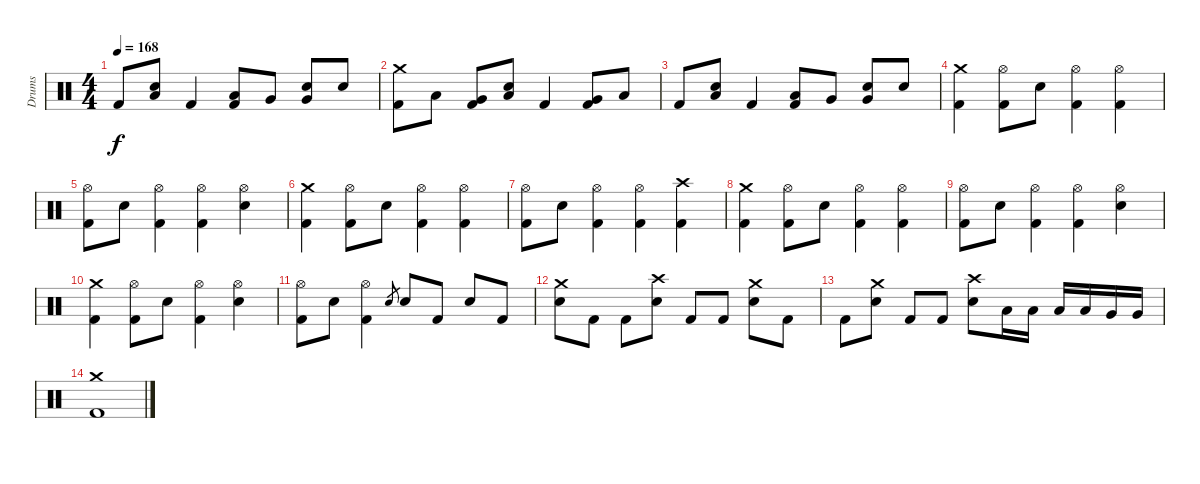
\track ("Drums" "Drums") {instrument percussion}
\staff {score}
\articulation defaults
\ts (4 4)
\tempo 168
\clef neutral
\ks c "Kick (hit) 2".8{dy f}
("Low Floor Tom (hit)" "Electric Snare (hit)").8 "Kick (hit) 2".4 ("Low Tom (hit)" "Kick (hit) 2").8 "Very Low Tom (hit)".8 ("Very Low Tom (hit)" "Electric Snare (hit)").8 "Electric Snare (hit)".8 |
("Crash medium (hit)" "Kick (hit) 2").8 "Low Tom (hit)".8 ("Very Low Tom (hit)" "Kick (hit) 2").8 ("Low Floor Tom (hit)" "Electric Snare (hit)").8 "Kick (hit) 2".4 ("Very Low Tom (hit)" "Kick (hit) 2").8 "Low Floor Tom (hit)".8 |
"Kick (hit) 2".8 ("Low Floor Tom (hit)" "Electric Snare (hit)").8 "Kick (hit) 2".4 ("Low Tom (hit)" "Kick (hit) 2").8 "Very Low Tom (hit)".8 ("Very Low Tom (hit)" "Electric Snare (hit)").8 "Electric Snare (hit)".8 |
("Crash medium (hit)" "Kick (hit) 2").4 ("Hi-Hat (open)" "Kick (hit) 2").8 "Electric Snare (hit)".8 ("Hi-Hat (open)" "Kick (hit) 2").4 ("Hi-Hat (open)" "Kick (hit) 2").4 |
("Hi-Hat (open)" "Kick (hit) 2").8 "Electric Snare (hit)".8 ("Hi-Hat (open)" "Kick (hit) 2").4 ("Hi-Hat (open)" "Kick (hit) 2").4 ("Hi-Hat (open)" "Electric Snare (hit)").4 |
("Crash medium (hit)" "Kick (hit) 2").4 ("Hi-Hat (open)" "Kick (hit) 2").8 "Electric Snare (hit)".8 ("Hi-Hat (open)" "Kick (hit) 2").4 ("Hi-Hat (open)" "Kick (hit) 2").4 |
("Hi-Hat (open)" "Kick (hit) 2").8 "Electric Snare (hit)".8 ("Hi-Hat (open)" "Kick (hit) 2").4 ("Hi-Hat (open)" "Kick (hit) 2").4 ("Crash high (hit)" "Kick (hit) 2").4 |
("Crash medium (hit)" "Kick (hit) 2").4 ("Hi-Hat (open)" "Kick (hit) 2").8 "Electric Snare (hit)".8 ("Hi-Hat (open)" "Kick (hit) 2").4 ("Hi-Hat (open)" "Kick (hit) 2").4 |
("Hi-Hat (open)" "Kick (hit) 2").8 "Electric Snare (hit)".8 ("Hi-Hat (open)" "Kick (hit) 2").4 ("Hi-Hat (open)" "Kick (hit) 2").4 ("Hi-Hat (open)" "Electric Snare (hit)").4 |
("Crash medium (hit)" "Kick (hit) 2").4 ("Hi-Hat (open)" "Kick (hit) 2").8 "Electric Snare (hit)".8 ("Hi-Hat (open)" "Kick (hit) 2").4 ("Hi-Hat (open)" "Electric Snare (hit)").4 |
("Hi-Hat (open)" "Kick (hit) 2").8 "Electric Snare (hit)".8 ("Hi-Hat (open)" "Kick (hit) 2").4 "Electric Snare (hit)".8{gr} "Electric Snare (hit)".8 "Kick (hit) 2".8 "Electric Snare (hit)".8 "Kick (hit) 2".8 |
("Crash medium (hit)" "Electric Snare (hit)").8 "Kick (hit) 2".8 "Kick (hit) 2".8 ("Crash high (hit)" "Electric Snare (hit)").8 "Kick (hit) 2".8 "Kick (hit) 2".8 ("Crash medium (hit)" "Electric Snare (hit)").8 "Kick (hit) 2".8 |
"Kick (hit) 2".8 ("Crash medium (hit)" "Electric Snare (hit)").8 "Kick (hit) 2".8 "Kick (hit) 2".8 ("Crash high (hit)" "Electric Snare (hit)").8 "Low Tom (hit)".16 "Low Tom (hit)".16 "Low Tom (hit)".16 "Low Tom (hit)".16 "Very Low Tom (hit)".16 "Very Low Tom (hit)".16 |
("Crash medium (hit)" "Kick (hit) 2").1
